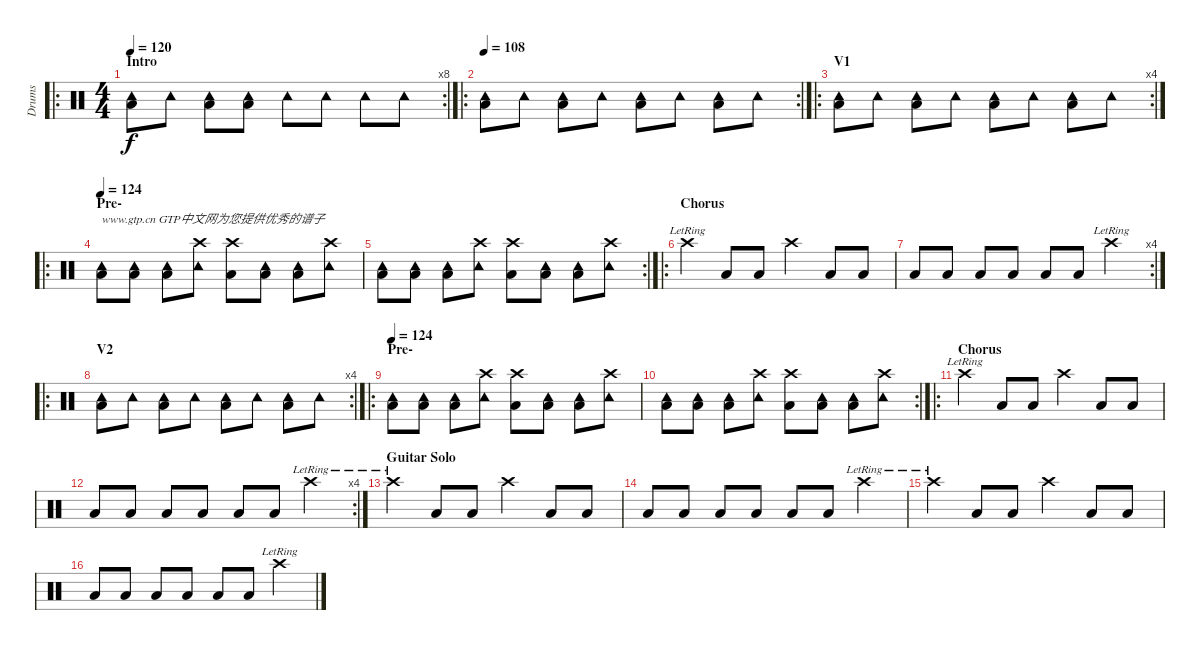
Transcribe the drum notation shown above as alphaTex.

\track ("Drums" "Drums") {instrument percussion}
\staff {score}
\articulation defaults
\ro
\rc 8
\ts (4 4)
\section ("" "Intro")
\tempo 120
\clef neutral
\ks c
("Tambourine (hit)" "Low Tom (hit)").8{dy f} "Tambourine (hit)".8 ("Tambourine (hit)" "Low Tom (hit)").8 ("Tambourine (hit)" "Low Tom (hit)").8 "Tambourine (hit)".8 "Tambourine (hit)".8 "Tambourine (hit)".8 "Tambourine (hit)".8 |
\ro
\rc 2
\tempo 108
("Low Tom (hit)" "Tambourine (hit)").8 "Tambourine (hit)".8 ("Low Tom (hit)" "Tambourine (hit)").8 "Tambourine (hit)".8 ("Low Tom (hit)" "Tambourine (hit)").8 "Tambourine (hit)".8 ("Low Tom (hit)" "Tambourine (hit)").8 "Tambourine (hit)".8 |
\ro
\rc 4
\section ("" "V1")
("Low Tom (hit)" "Tambourine (hit)").8 "Tambourine (hit)".8 ("Low Tom (hit)" "Tambourine (hit)").8 "Tambourine (hit)".8 ("Low Tom (hit)" "Tambourine (hit)").8 "Tambourine (hit)".8 ("Low Tom (hit)" "Tambourine (hit)").8 "Tambourine (hit)".8 |
\ro
\section ("" "Pre-")
\tempo 124
("Low Tom (hit)" "Tambourine (hit)").8{txt "www.gtp.cn GTP中文网为您提供优秀的谱子"} ("Tambourine (hit)" "Low Tom (hit)").8 ("Low Tom (hit)" "Tambourine (hit)").8 ("Tambourine (hit)" "Crash high (hit)").8 ("Low Tom (hit)" "Crash high (hit)").8 ("Tambourine (hit)" "Low Tom (hit)").8 ("Low Tom (hit)" "Tambourine (hit)").8 ("Tambourine (hit)" "Crash high (hit)").8 |
\rc 2
("Low Tom (hit)" "Tambourine (hit)").8 ("Tambourine (hit)" "Low Tom (hit)").8 ("Low Tom (hit)" "Tambourine (hit)").8 ("Tambourine (hit)" "Crash high (hit)").8 ("Low Tom (hit)" "Crash high (hit)").8 ("Tambourine (hit)" "Low Tom (hit)").8 ("Low Tom (hit)" "Tambourine (hit)").8 ("Tambourine (hit)" "Crash high (hit)").8 |
\ro
\section ("" "Chorus")
"Crash high (hit)"{lr}.4 "Low Tom (hit)".8 "Low Tom (hit)".8 "Crash high (hit)".4 "Low Tom (hit)".8 "Low Tom (hit)".8 |
\rc 4 "Low Tom (hit)".8 "Low Tom (hit)".8 "Low Tom (hit)".8 "Low Tom (hit)".8 "Low Tom (hit)".8 "Low Tom (hit)".8 "Crash high (hit)"{lr}.4
|
\ro
\rc 4
\section ("" "V2")
("Low Tom (hit)" "Tambourine (hit)").8 "Tambourine (hit)".8 ("Low Tom (hit)" "Tambourine (hit)").8 "Tambourine (hit)".8 ("Low Tom (hit)" "Tambourine (hit)").8 "Tambourine (hit)".8 ("Low Tom (hit)" "Tambourine (hit)").8 "Tambourine (hit)".8 |
\ro
\section ("" "Pre-")
\tempo 124
("Low Tom (hit)" "Tambourine (hit)").8 ("Tambourine (hit)" "Low Tom (hit)").8 ("Low Tom (hit)" "Tambourine (hit)").8 ("Tambourine (hit)" "Crash high (hit)").8 ("Low Tom (hit)" "Crash high (hit)").8 ("Tambourine (hit)" "Low Tom (hit)").8 ("Low Tom (hit)" "Tambourine (hit)").8 ("Tambourine (hit)" "Crash high (hit)").8 |
\rc 2
("Low Tom (hit)" "Tambourine (hit)").8 ("Tambourine (hit)" "Low Tom (hit)").8 ("Low Tom (hit)" "Tambourine (hit)").8 ("Tambourine (hit)" "Crash high (hit)").8 ("Low Tom (hit)" "Crash high (hit)").8 ("Tambourine (hit)" "Low Tom (hit)").8 ("Low Tom (hit)" "Tambourine (hit)").8 ("Tambourine (hit)" "Crash high (hit)").8 |
\ro
\section ("" "Chorus")
"Crash high (hit)"{lr}.4 "Low Tom (hit)".8 "Low Tom (hit)".8 "Crash high (hit)".4 "Low Tom (hit)".8 "Low Tom (hit)".8 |
\rc 4 "Low Tom (hit)".8 "Low Tom (hit)".8 "Low Tom (hit)".8 "Low Tom (hit)".8 "Low Tom (hit)".8 "Low Tom (hit)".8 "Crash high (hit)"{lr}.4
|
\section ("" "Guitar Solo")
"Crash high (hit)"{lr}.4 "Low Tom (hit)".8 "Low Tom (hit)".8 "Crash high (hit)".4 "Low Tom (hit)".8 "Low Tom (hit)".8 |
"Low Tom (hit)".8 "Low Tom (hit)".8 "Low Tom (hit)".8 "Low Tom (hit)".8 "Low Tom (hit)".8 "Low Tom (hit)".8 "Crash high (hit)"{lr}.4 |
"Crash high (hit)"{lr}.4 "Low Tom (hit)".8 "Low Tom (hit)".8 "Crash high (hit)".4 "Low Tom (hit)".8 "Low Tom (hit)".8 |
"Low Tom (hit)".8 "Low Tom (hit)".8 "Low Tom (hit)".8 "Low Tom (hit)".8 "Low Tom (hit)".8 "Low Tom (hit)".8 "Crash high (hit)"{lr}.4
